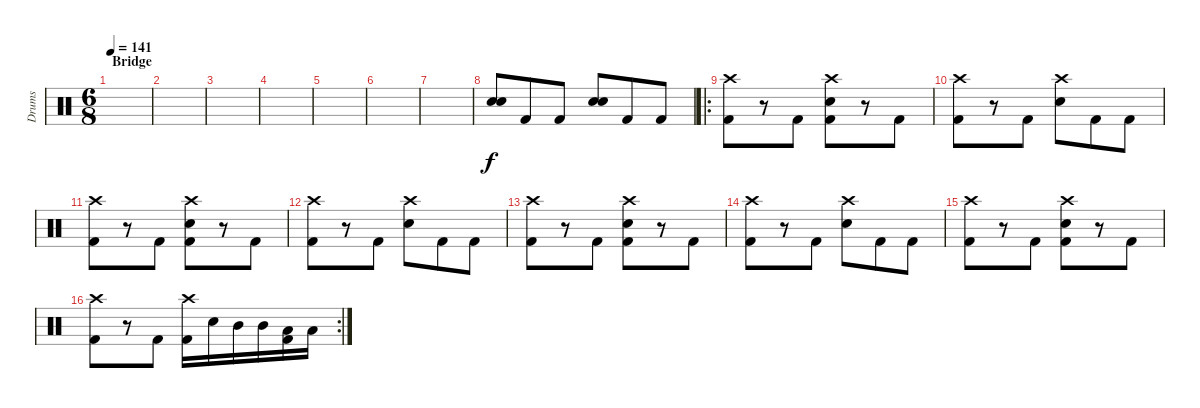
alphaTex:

\track ("Drums" "Drums") {instrument percussion}
\staff {score}
\articulation defaults
\ts (6 8)
\section ("" "Bridge")
\tempo 141
\clef neutral
\ks c
|
|
|
|
|
|
|
("Electric Snare (hit)" "Electric Snare (hit)").8 "Kick (hit) 2".8 "Kick (hit) 2".8 ("Electric Snare (hit)" "Electric Snare (hit)").8 "Kick (hit) 2".8 "Kick (hit) 2".8 |
\ro
("Crash high (hit)" "Kick (hit) 2").8 r.8 "Kick (hit) 2".8 ("Crash high (hit)" "Electric Snare (hit)" "Kick (hit) 2").8 r.8 "Kick (hit) 2".8 |
("Crash high (hit)" "Kick (hit) 2").8 r.8 "Kick (hit) 2".8 ("Crash high (hit)" "Electric Snare (hit)").8 "Kick (hit) 2".8 "Kick (hit) 2".8 |
("Crash high (hit)" "Kick (hit) 2").8 r.8 "Kick (hit) 2".8 ("Crash high (hit)" "Electric Snare (hit)" "Kick (hit) 2").8 r.8 "Kick (hit) 2".8 |
("Crash high (hit)" "Kick (hit) 2").8 r.8 "Kick (hit) 2".8 ("Crash high (hit)" "Electric Snare (hit)").8 "Kick (hit) 2".8 "Kick (hit) 2".8 |
("Crash high (hit)" "Kick (hit) 2").8 r.8 "Kick (hit) 2".8 ("Crash high (hit)" "Electric Snare (hit)" "Kick (hit) 2").8 r.8 "Kick (hit) 2".8 |
("Crash high (hit)" "Kick (hit) 2").8 r.8 "Kick (hit) 2".8 ("Crash high (hit)" "Electric Snare (hit)").8 "Kick (hit) 2".8 "Kick (hit) 2".8 |
("Crash high (hit)" "Kick (hit) 2").8 r.8 "Kick (hit) 2".8 ("Crash high (hit)" "Electric Snare (hit)" "Kick (hit) 2").8 r.8 "Kick (hit) 2".8 |
\rc 2
("Crash high (hit)" "Kick (hit) 2").8 r.8 "Kick (hit) 2".8 ("Crash high (hit)" "Kick (hit) 2").16 "Snare (hit)".16 "Mid Tom (hit)".16 "Mid Tom (hit)".16 ("Low Tom (hit)" "Kick (hit) 2").16 "Low Tom (hit)".16
